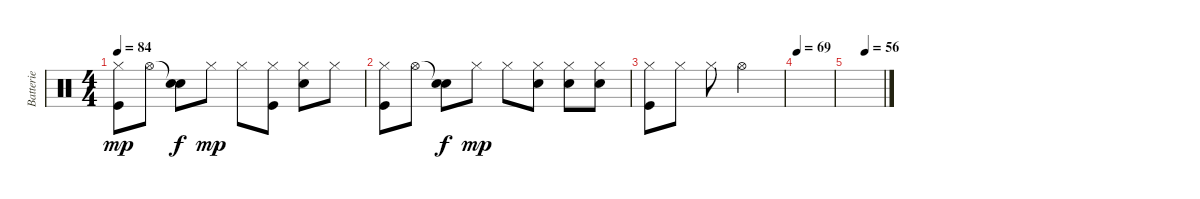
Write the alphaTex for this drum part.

\track ("Batterie" "Batterie") {instrument percussion}
\staff {score}
\articulation defaults
\ts (4 4)
\tempo 84
\clef neutral
\ks c
("Hi-Hat (closed)" "Kick (hit)").8{dy mp} "Hi-Hat (open)".8 ("Snare (hit)"{t} "Snare (hit) 2").8{dy f} "Hi-Hat (closed)".8{dy mp} "Hi-Hat (closed)".8 ("Hi-Hat (closed)" "Kick (hit)").8 ("Hi-Hat (closed)" "Snare (hit) 2").8 "Hi-Hat (closed)".8 |
("Hi-Hat (closed)" "Kick (hit)").8 "Hi-Hat (open)".8 ("Snare (hit)"{t} "Snare (hit) 2").8{dy f} "Hi-Hat (closed)".8{dy mp} "Hi-Hat (closed)".8 ("Hi-Hat (closed)" "Snare (hit) 2").8 ("Hi-Hat (closed)" "Snare (hit) 2").8 ("Hi-Hat (closed)" "Snare (hit) 2").8 |
("Hi-Hat (closed)" "Kick (hit)").8 "Hi-Hat (closed)".8 "Hi-Hat (closed)".8 "Hi-Hat (open)".2 |
\tempo 69
|
\tempo (56 0.5)
